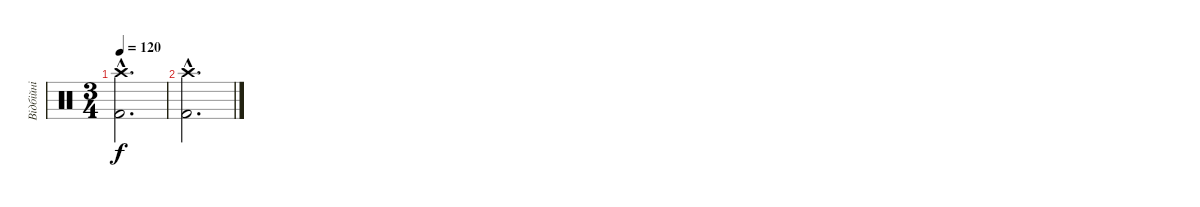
\track ("Вiдбiйнi" "Вiдбiйнi") {instrument percussion}
\staff {score}
\articulation defaults
\ts (3 4)
\tempo 120
\clef neutral
\ks c
("Crash high (hit)"{hac} "Kick (hit) 2"{hac}).2{d dy f} |
("Crash high (hit)"{hac} "Kick (hit) 2"{hac}).2{d}
